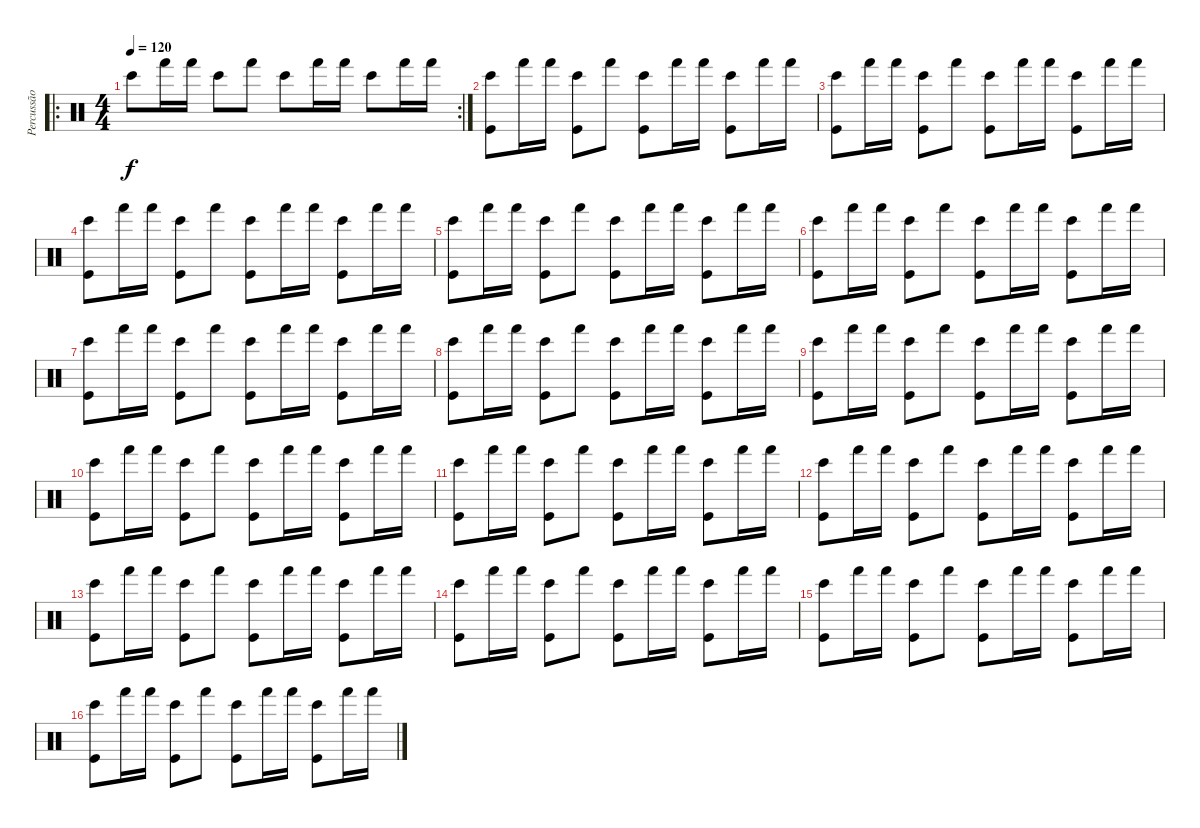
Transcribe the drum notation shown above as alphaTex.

\track ("Percussão" "Percussão") {instrument percussion}
\staff {score}
\articulation defaults
\ro
\rc 2
\ts (4 4)
\tempo 120
\clef neutral
\ks c "Bongo High (hit)".8{dy f} "Hand (hit)".16 "Hand (hit)".16 "Bongo High (hit)".8 "Hand (hit)".8 "Bongo High (hit)".8 "Hand (hit)".16 "Hand (hit)".16 "Bongo High (hit)".8 "Hand (hit)".16 "Hand (hit)".16
|
("Bongo High (hit)" "Kick (hit)").8 "Hand (hit)".16 "Hand (hit)".16 ("Bongo High (hit)" "Kick (hit)").8 "Hand (hit)".8 ("Bongo High (hit)" "Kick (hit)").8 "Hand (hit)".16 "Hand (hit)".16 ("Bongo High (hit)" "Kick (hit)").8 "Hand (hit)".16 "Hand (hit)".16 |
("Bongo High (hit)" "Kick (hit)").8 "Hand (hit)".16 "Hand (hit)".16 ("Bongo High (hit)" "Kick (hit)").8 "Hand (hit)".8 ("Bongo High (hit)" "Kick (hit)").8 "Hand (hit)".16 "Hand (hit)".16 ("Bongo High (hit)" "Kick (hit)").8 "Hand (hit)".16 "Hand (hit)".16 |
("Bongo High (hit)" "Kick (hit)").8 "Hand (hit)".16 "Hand (hit)".16 ("Bongo High (hit)" "Kick (hit)").8 "Hand (hit)".8 ("Bongo High (hit)" "Kick (hit)").8 "Hand (hit)".16 "Hand (hit)".16 ("Bongo High (hit)" "Kick (hit)").8 "Hand (hit)".16 "Hand (hit)".16 |
("Bongo High (hit)" "Kick (hit)").8 "Hand (hit)".16 "Hand (hit)".16 ("Bongo High (hit)" "Kick (hit)").8 "Hand (hit)".8 ("Bongo High (hit)" "Kick (hit)").8 "Hand (hit)".16 "Hand (hit)".16 ("Bongo High (hit)" "Kick (hit)").8 "Hand (hit)".16 "Hand (hit)".16 |
("Bongo High (hit)" "Kick (hit)").8 "Hand (hit)".16 "Hand (hit)".16 ("Bongo High (hit)" "Kick (hit)").8 "Hand (hit)".8 ("Bongo High (hit)" "Kick (hit)").8 "Hand (hit)".16 "Hand (hit)".16 ("Bongo High (hit)" "Kick (hit)").8 "Hand (hit)".16 "Hand (hit)".16 |
("Bongo High (hit)" "Kick (hit)").8 "Hand (hit)".16 "Hand (hit)".16 ("Bongo High (hit)" "Kick (hit)").8 "Hand (hit)".8 ("Bongo High (hit)" "Kick (hit)").8 "Hand (hit)".16 "Hand (hit)".16 ("Bongo High (hit)" "Kick (hit)").8 "Hand (hit)".16 "Hand (hit)".16 |
("Bongo High (hit)" "Kick (hit)").8 "Hand (hit)".16 "Hand (hit)".16 ("Bongo High (hit)" "Kick (hit)").8 "Hand (hit)".8 ("Bongo High (hit)" "Kick (hit)").8 "Hand (hit)".16 "Hand (hit)".16 ("Bongo High (hit)" "Kick (hit)").8 "Hand (hit)".16 "Hand (hit)".16 |
("Bongo High (hit)" "Kick (hit)").8 "Hand (hit)".16 "Hand (hit)".16 ("Bongo High (hit)" "Kick (hit)").8 "Hand (hit)".8 ("Bongo High (hit)" "Kick (hit)").8 "Hand (hit)".16 "Hand (hit)".16 ("Bongo High (hit)" "Kick (hit)").8 "Hand (hit)".16 "Hand (hit)".16 |
("Bongo High (hit)" "Kick (hit)").8 "Hand (hit)".16 "Hand (hit)".16 ("Bongo High (hit)" "Kick (hit)").8 "Hand (hit)".8 ("Bongo High (hit)" "Kick (hit)").8 "Hand (hit)".16 "Hand (hit)".16 ("Bongo High (hit)" "Kick (hit)").8 "Hand (hit)".16 "Hand (hit)".16 |
("Bongo High (hit)" "Kick (hit)").8 "Hand (hit)".16 "Hand (hit)".16 ("Bongo High (hit)" "Kick (hit)").8 "Hand (hit)".8 ("Bongo High (hit)" "Kick (hit)").8 "Hand (hit)".16 "Hand (hit)".16 ("Bongo High (hit)" "Kick (hit)").8 "Hand (hit)".16 "Hand (hit)".16 |
("Bongo High (hit)" "Kick (hit)").8 "Hand (hit)".16 "Hand (hit)".16 ("Bongo High (hit)" "Kick (hit)").8 "Hand (hit)".8 ("Bongo High (hit)" "Kick (hit)").8 "Hand (hit)".16 "Hand (hit)".16 ("Bongo High (hit)" "Kick (hit)").8 "Hand (hit)".16 "Hand (hit)".16 |
("Bongo High (hit)" "Kick (hit)").8 "Hand (hit)".16 "Hand (hit)".16 ("Bongo High (hit)" "Kick (hit)").8 "Hand (hit)".8 ("Bongo High (hit)" "Kick (hit)").8 "Hand (hit)".16 "Hand (hit)".16 ("Bongo High (hit)" "Kick (hit)").8 "Hand (hit)".16 "Hand (hit)".16 |
("Bongo High (hit)" "Kick (hit)").8 "Hand (hit)".16 "Hand (hit)".16 ("Bongo High (hit)" "Kick (hit)").8 "Hand (hit)".8 ("Bongo High (hit)" "Kick (hit)").8 "Hand (hit)".16 "Hand (hit)".16 ("Bongo High (hit)" "Kick (hit)").8 "Hand (hit)".16 "Hand (hit)".16 |
("Bongo High (hit)" "Kick (hit)").8 "Hand (hit)".16 "Hand (hit)".16 ("Bongo High (hit)" "Kick (hit)").8 "Hand (hit)".8 ("Bongo High (hit)" "Kick (hit)").8 "Hand (hit)".16 "Hand (hit)".16 ("Bongo High (hit)" "Kick (hit)").8 "Hand (hit)".16 "Hand (hit)".16 |
("Bongo High (hit)" "Kick (hit)").8 "Hand (hit)".16 "Hand (hit)".16 ("Bongo High (hit)" "Kick (hit)").8 "Hand (hit)".8 ("Bongo High (hit)" "Kick (hit)").8 "Hand (hit)".16 "Hand (hit)".16 ("Bongo High (hit)" "Kick (hit)").8 "Hand (hit)".16 "Hand (hit)".16
